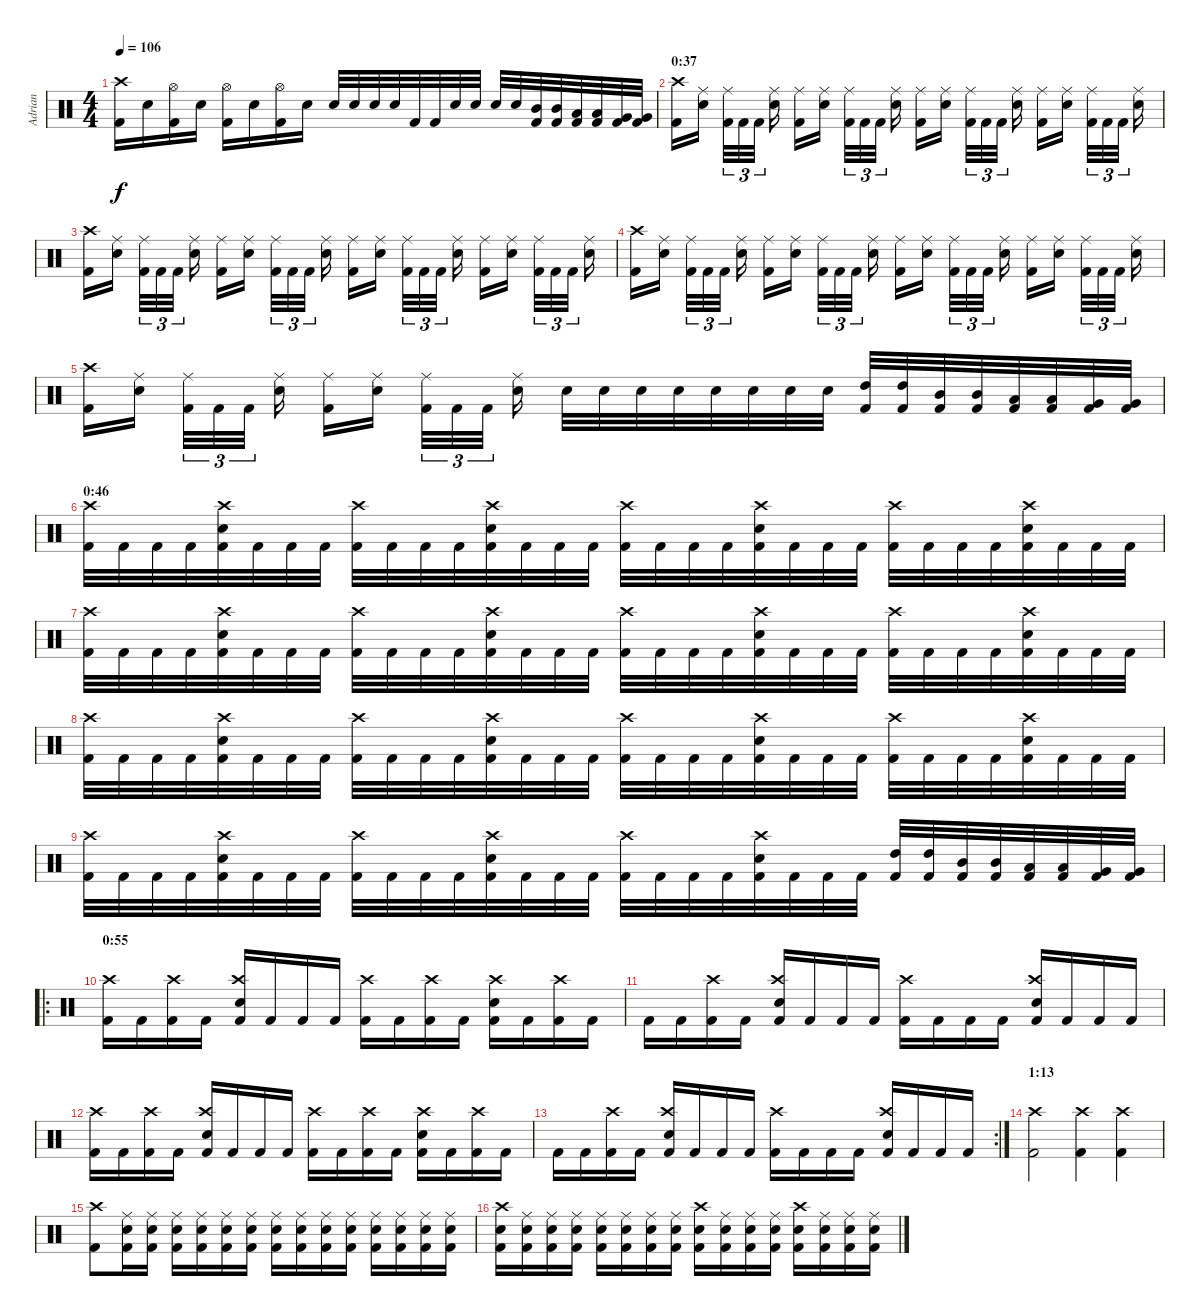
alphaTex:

\track ("Adrian" "Adrian") {instrument percussion}
\staff {score}
\articulation defaults
\ts (4 4)
\tempo 106
\clef neutral
\ks c
("Kick (hit) 2" "Crash high (hit)").16{dy f} "Snare (hit) 2".16 ("Kick (hit) 2" "Hi-Hat (open)").16 "Snare (hit) 2".16 ("Kick (hit) 2" "Hi-Hat (open)").16 "Snare (hit) 2".16 ("Kick (hit) 2" "Hi-Hat (open)").16 "Snare (hit) 2".16 "Snare (hit) 2".32 "Snare (hit) 2".32 "Snare (hit) 2".32 "Snare (hit) 2".32 "Kick (hit) 2".32 "Kick (hit) 2".32 "Snare (hit) 2".32 "Snare (hit) 2".32 "Snare (hit) 2".32 "Snare (hit) 2".32 ("Kick (hit) 2" "Mid Tom (hit)").32 ("Kick (hit) 2" "Mid Tom (hit)").32 ("Kick (hit) 2" "Low Tom (hit)").32 ("Kick (hit) 2" "Low Tom (hit)").32 ("Kick (hit) 2" "Very Low Tom (hit)").32 ("Kick (hit) 2" "Very Low Tom (hit)").32 |
\section ("" "0:37")
("Kick (hit) 2" "Crash high (hit)").16 ("Snare (hit) 2" "Ride (middle)").16 ("Kick (hit) 2" "Ride (middle)").32{tu (3 2)} "Kick (hit) 2".32{tu (3 2)} "Kick (hit) 2".32{tu (3 2)} ("Snare (hit) 2" "Ride (middle)").16 ("Kick (hit) 2" "Ride (middle)").16 ("Snare (hit) 2" "Ride (middle)").16 ("Kick (hit) 2" "Ride (middle)").32{tu (3 2)} "Kick (hit) 2".32{tu (3 2)} "Kick (hit) 2".32{tu (3 2)} ("Snare (hit) 2" "Ride (middle)").16 ("Kick (hit) 2" "Ride (middle)").16 ("Snare (hit) 2" "Ride (middle)").16 ("Kick (hit) 2" "Ride (middle)").32{tu (3 2)} "Kick (hit) 2".32{tu (3 2)} "Kick (hit) 2".32{tu (3 2)} ("Snare (hit) 2" "Ride (middle)").16 ("Kick (hit) 2" "Ride (middle)").16 ("Snare (hit) 2" "Ride (middle)").16 ("Kick (hit) 2" "Ride (middle)").32{tu (3 2)} "Kick (hit) 2".32{tu (3 2)} "Kick (hit) 2".32{tu (3 2)} ("Snare (hit) 2" "Ride (middle)").16 |
("Kick (hit) 2" "Crash high (hit)").16 ("Snare (hit) 2" "Ride (middle)").16 ("Kick (hit) 2" "Ride (middle)").32{tu (3 2)} "Kick (hit) 2".32{tu (3 2)} "Kick (hit) 2".32{tu (3 2)} ("Snare (hit) 2" "Ride (middle)").16 ("Kick (hit) 2" "Ride (middle)").16 ("Snare (hit) 2" "Ride (middle)").16 ("Kick (hit) 2" "Ride (middle)").32{tu (3 2)} "Kick (hit) 2".32{tu (3 2)} "Kick (hit) 2".32{tu (3 2)} ("Snare (hit) 2" "Ride (middle)").16 ("Kick (hit) 2" "Ride (middle)").16 ("Snare (hit) 2" "Ride (middle)").16 ("Kick (hit) 2" "Ride (middle)").32{tu (3 2)} "Kick (hit) 2".32{tu (3 2)} "Kick (hit) 2".32{tu (3 2)} ("Snare (hit) 2" "Ride (middle)").16 ("Kick (hit) 2" "Ride (middle)").16 ("Snare (hit) 2" "Ride (middle)").16 ("Kick (hit) 2" "Ride (middle)").32{tu (3 2)} "Kick (hit) 2".32{tu (3 2)} "Kick (hit) 2".32{tu (3 2)} ("Snare (hit) 2" "Ride (middle)").16 |
("Kick (hit) 2" "Crash high (hit)").16 ("Snare (hit) 2" "Ride (middle)").16 ("Kick (hit) 2" "Ride (middle)").32{tu (3 2)} "Kick (hit) 2".32{tu (3 2)} "Kick (hit) 2".32{tu (3 2)} ("Snare (hit) 2" "Ride (middle)").16 ("Kick (hit) 2" "Ride (middle)").16 ("Snare (hit) 2" "Ride (middle)").16 ("Kick (hit) 2" "Ride (middle)").32{tu (3 2)} "Kick (hit) 2".32{tu (3 2)} "Kick (hit) 2".32{tu (3 2)} ("Snare (hit) 2" "Ride (middle)").16 ("Kick (hit) 2" "Ride (middle)").16 ("Snare (hit) 2" "Ride (middle)").16 ("Kick (hit) 2" "Ride (middle)").32{tu (3 2)} "Kick (hit) 2".32{tu (3 2)} "Kick (hit) 2".32{tu (3 2)} ("Snare (hit) 2" "Ride (middle)").16 ("Kick (hit) 2" "Ride (middle)").16 ("Snare (hit) 2" "Ride (middle)").16 ("Kick (hit) 2" "Ride (middle)").32{tu (3 2)} "Kick (hit) 2".32{tu (3 2)} "Kick (hit) 2".32{tu (3 2)} ("Snare (hit) 2" "Ride (middle)").16 |
("Kick (hit) 2" "Crash high (hit)").16 ("Snare (hit) 2" "Ride (middle)").16 ("Kick (hit) 2" "Ride (middle)").32{tu (3 2)} "Kick (hit) 2".32{tu (3 2)} "Kick (hit) 2".32{tu (3 2)} ("Snare (hit) 2" "Ride (middle)").16 ("Kick (hit) 2" "Ride (middle)").16 ("Snare (hit) 2" "Ride (middle)").16 ("Kick (hit) 2" "Ride (middle)").32{tu (3 2)} "Kick (hit) 2".32{tu (3 2)} "Kick (hit) 2".32{tu (3 2)} ("Snare (hit) 2" "Ride (middle)").16 "Snare (hit) 2".32 "Snare (hit) 2".32 "Snare (hit) 2".32 "Snare (hit) 2".32 "Snare (hit) 2".32 "Snare (hit) 2".32 "Snare (hit) 2".32 "Snare (hit) 2".32 ("Kick (hit) 2" "High Tom (hit)").32 ("Kick (hit) 2" "High Tom (hit)").32 ("Kick (hit) 2" "Mid Tom (hit)").32 ("Kick (hit) 2" "Mid Tom (hit)").32 ("Kick (hit) 2" "Low Tom (hit)").32 ("Kick (hit) 2" "Low Tom (hit)").32 ("Kick (hit) 2" "Very Low Tom (hit)").32 ("Kick (hit) 2" "Very Low Tom (hit)").32 |
\section ("" "0:46")
("Kick (hit) 2" "Crash high (hit)").32 "Kick (hit) 2".32 "Kick (hit) 2".32 "Kick (hit) 2".32 ("Kick (hit) 2" "Snare (hit) 2" "Crash high (hit)").32 "Kick (hit) 2".32 "Kick (hit) 2".32 "Kick (hit) 2".32 ("Kick (hit) 2" "Crash high (hit)").32 "Kick (hit) 2".32 "Kick (hit) 2".32 "Kick (hit) 2".32 ("Kick (hit) 2" "Snare (hit) 2" "Crash high (hit)").32 "Kick (hit) 2".32 "Kick (hit) 2".32 "Kick (hit) 2".32 ("Kick (hit) 2" "Crash high (hit)").32 "Kick (hit) 2".32 "Kick (hit) 2".32 "Kick (hit) 2".32 ("Kick (hit) 2" "Snare (hit) 2" "Crash high (hit)").32 "Kick (hit) 2".32 "Kick (hit) 2".32 "Kick (hit) 2".32 ("Kick (hit) 2" "Crash high (hit)").32 "Kick (hit) 2".32 "Kick (hit) 2".32 "Kick (hit) 2".32 ("Kick (hit) 2" "Snare (hit) 2" "Crash high (hit)").32 "Kick (hit) 2".32 "Kick (hit) 2".32 "Kick (hit) 2".32 |
("Kick (hit) 2" "Crash high (hit)").32 "Kick (hit) 2".32 "Kick (hit) 2".32 "Kick (hit) 2".32 ("Kick (hit) 2" "Snare (hit) 2" "Crash high (hit)").32 "Kick (hit) 2".32 "Kick (hit) 2".32 "Kick (hit) 2".32 ("Kick (hit) 2" "Crash high (hit)").32 "Kick (hit) 2".32 "Kick (hit) 2".32 "Kick (hit) 2".32 ("Kick (hit) 2" "Snare (hit) 2" "Crash high (hit)").32 "Kick (hit) 2".32 "Kick (hit) 2".32 "Kick (hit) 2".32 ("Kick (hit) 2" "Crash high (hit)").32 "Kick (hit) 2".32 "Kick (hit) 2".32 "Kick (hit) 2".32 ("Kick (hit) 2" "Snare (hit) 2" "Crash high (hit)").32 "Kick (hit) 2".32 "Kick (hit) 2".32 "Kick (hit) 2".32 ("Kick (hit) 2" "Crash high (hit)").32 "Kick (hit) 2".32 "Kick (hit) 2".32 "Kick (hit) 2".32 ("Kick (hit) 2" "Snare (hit) 2" "Crash high (hit)").32 "Kick (hit) 2".32 "Kick (hit) 2".32 "Kick (hit) 2".32 |
("Kick (hit) 2" "Crash high (hit)").32 "Kick (hit) 2".32 "Kick (hit) 2".32 "Kick (hit) 2".32 ("Kick (hit) 2" "Snare (hit) 2" "Crash high (hit)").32 "Kick (hit) 2".32 "Kick (hit) 2".32 "Kick (hit) 2".32 ("Kick (hit) 2" "Crash high (hit)").32 "Kick (hit) 2".32 "Kick (hit) 2".32 "Kick (hit) 2".32 ("Kick (hit) 2" "Snare (hit) 2" "Crash high (hit)").32 "Kick (hit) 2".32 "Kick (hit) 2".32 "Kick (hit) 2".32 ("Kick (hit) 2" "Crash high (hit)").32 "Kick (hit) 2".32 "Kick (hit) 2".32 "Kick (hit) 2".32 ("Kick (hit) 2" "Snare (hit) 2" "Crash high (hit)").32 "Kick (hit) 2".32 "Kick (hit) 2".32 "Kick (hit) 2".32 ("Kick (hit) 2" "Crash high (hit)").32 "Kick (hit) 2".32 "Kick (hit) 2".32 "Kick (hit) 2".32 ("Kick (hit) 2" "Snare (hit) 2" "Crash high (hit)").32 "Kick (hit) 2".32 "Kick (hit) 2".32 "Kick (hit) 2".32 |
("Kick (hit) 2" "Crash high (hit)").32 "Kick (hit) 2".32 "Kick (hit) 2".32 "Kick (hit) 2".32 ("Kick (hit) 2" "Snare (hit) 2" "Crash high (hit)").32 "Kick (hit) 2".32 "Kick (hit) 2".32 "Kick (hit) 2".32 ("Kick (hit) 2" "Crash high (hit)").32 "Kick (hit) 2".32 "Kick (hit) 2".32 "Kick (hit) 2".32 ("Kick (hit) 2" "Snare (hit) 2" "Crash high (hit)").32 "Kick (hit) 2".32 "Kick (hit) 2".32 "Kick (hit) 2".32 ("Kick (hit) 2" "Crash high (hit)").32 "Kick (hit) 2".32 "Kick (hit) 2".32 "Kick (hit) 2".32 ("Kick (hit) 2" "Snare (hit) 2" "Crash high (hit)").32 "Kick (hit) 2".32 "Kick (hit) 2".32 "Kick (hit) 2".32 ("Kick (hit) 2" "High Tom (hit)").32 ("Kick (hit) 2" "High Tom (hit)").32 ("Kick (hit) 2" "Mid Tom (hit)").32 ("Kick (hit) 2" "Mid Tom (hit)").32 ("Kick (hit) 2" "Low Tom (hit)").32 ("Kick (hit) 2" "Low Tom (hit)").32 ("Kick (hit) 2" "Very Low Tom (hit)").32 ("Kick (hit) 2" "Very Low Tom (hit)").32 |
\ro
\section ("" "0:55")
("Kick (hit) 2" "Crash high (hit)").16 "Kick (hit) 2".16 ("Kick (hit) 2" "Crash high (hit)").16 "Kick (hit) 2".16 ("Kick (hit) 2" "Snare (hit) 2" "Crash high (hit)").16 "Kick (hit) 2".16 "Kick (hit) 2".16 "Kick (hit) 2".16 ("Kick (hit) 2" "Crash high (hit)").16 "Kick (hit) 2".16 ("Kick (hit) 2" "Crash high (hit)").16 "Kick (hit) 2".16 ("Kick (hit) 2" "Snare (hit) 2" "Crash high (hit)").16 "Kick (hit) 2".16 ("Kick (hit) 2" "Crash high (hit)").16 "Kick (hit) 2".16 |
"Kick (hit) 2".16 "Kick (hit) 2".16 ("Kick (hit) 2" "Crash high (hit)").16 "Kick (hit) 2".16 ("Kick (hit) 2" "Snare (hit) 2" "Crash high (hit)").16 "Kick (hit) 2".16 "Kick (hit) 2".16 "Kick (hit) 2".16 ("Kick (hit) 2" "Crash high (hit)").16 "Kick (hit) 2".16 "Kick (hit) 2".16 "Kick (hit) 2".16 ("Kick (hit) 2" "Snare (hit) 2" "Crash high (hit)").16 "Kick (hit) 2".16 "Kick (hit) 2".16 "Kick (hit) 2".16 |
("Kick (hit) 2" "Crash high (hit)").16 "Kick (hit) 2".16 ("Kick (hit) 2" "Crash high (hit)").16 "Kick (hit) 2".16 ("Kick (hit) 2" "Snare (hit) 2" "Crash high (hit)").16 "Kick (hit) 2".16 "Kick (hit) 2".16 "Kick (hit) 2".16 ("Kick (hit) 2" "Crash high (hit)").16 "Kick (hit) 2".16 ("Kick (hit) 2" "Crash high (hit)").16 "Kick (hit) 2".16 ("Kick (hit) 2" "Snare (hit) 2" "Crash high (hit)").16 "Kick (hit) 2".16 ("Kick (hit) 2" "Crash high (hit)").16 "Kick (hit) 2".16 |
\rc 2 "Kick (hit) 2".16 "Kick (hit) 2".16
("Kick (hit) 2" "Crash high (hit)").16 "Kick (hit) 2".16 ("Kick (hit) 2" "Snare (hit) 2" "Crash high (hit)").16 "Kick (hit) 2".16 "Kick (hit) 2".16 "Kick (hit) 2".16 ("Kick (hit) 2" "Crash high (hit)").16 "Kick (hit) 2".16 "Kick (hit) 2".16 "Kick (hit) 2".16 ("Kick (hit) 2" "Snare (hit) 2" "Crash high (hit)").16 "Kick (hit) 2".16 "Kick (hit) 2".16 "Kick (hit) 2".16 |
\section ("" "1:13")
("Kick (hit) 2" "Crash high (hit)").2 ("Kick (hit) 2" "Crash high (hit)").4 ("Kick (hit) 2" "Crash high (hit)").4 |
("Kick (hit) 2" "Crash high (hit)").8 ("Kick (hit) 2" "Snare (hit) 2" "Ride (middle)").16 ("Kick (hit) 2" "Snare (hit) 2" "Ride (middle)").16 ("Kick (hit) 2" "Snare (hit) 2" "Ride (middle)").16 ("Kick (hit) 2" "Snare (hit) 2" "Ride (middle)").16 ("Kick (hit) 2" "Snare (hit) 2" "Ride (middle)").16 ("Kick (hit) 2" "Snare (hit) 2" "Ride (middle)").16 ("Kick (hit) 2" "Snare (hit) 2" "Ride (middle)").16 ("Kick (hit) 2" "Snare (hit) 2" "Ride (middle)").16 ("Kick (hit) 2" "Snare (hit) 2" "Ride (middle)").16 ("Kick (hit) 2" "Snare (hit) 2" "Ride (middle)").16 ("Kick (hit) 2" "Snare (hit) 2" "Ride (middle)").16 ("Kick (hit) 2" "Snare (hit) 2" "Ride (middle)").16 ("Kick (hit) 2" "Snare (hit) 2" "Ride (middle)").16 ("Kick (hit) 2" "Snare (hit) 2" "Ride (middle)").16 |
("Kick (hit) 2" "Snare (hit) 2" "Crash high (hit)").16 ("Kick (hit) 2" "Snare (hit) 2" "Ride (middle)").16 ("Kick (hit) 2" "Snare (hit) 2" "Ride (middle)").16 ("Kick (hit) 2" "Snare (hit) 2" "Ride (middle)").16 ("Kick (hit) 2" "Snare (hit) 2" "Ride (middle)").16 ("Kick (hit) 2" "Snare (hit) 2" "Ride (middle)").16 ("Kick (hit) 2" "Snare (hit) 2" "Ride (middle)").16 ("Kick (hit) 2" "Snare (hit) 2" "Ride (middle)").16 ("Kick (hit) 2" "Snare (hit) 2" "Crash high (hit)").16 ("Kick (hit) 2" "Snare (hit) 2" "Ride (middle)").16 ("Kick (hit) 2" "Snare (hit) 2" "Ride (middle)").16 ("Kick (hit) 2" "Snare (hit) 2" "Ride (middle)").16 ("Kick (hit) 2" "Snare (hit) 2" "Crash high (hit)").16 ("Kick (hit) 2" "Snare (hit) 2" "Ride (middle)").16 ("Kick (hit) 2" "Snare (hit) 2" "Ride (middle)").16 ("Kick (hit) 2" "Snare (hit) 2" "Ride (middle)").16
